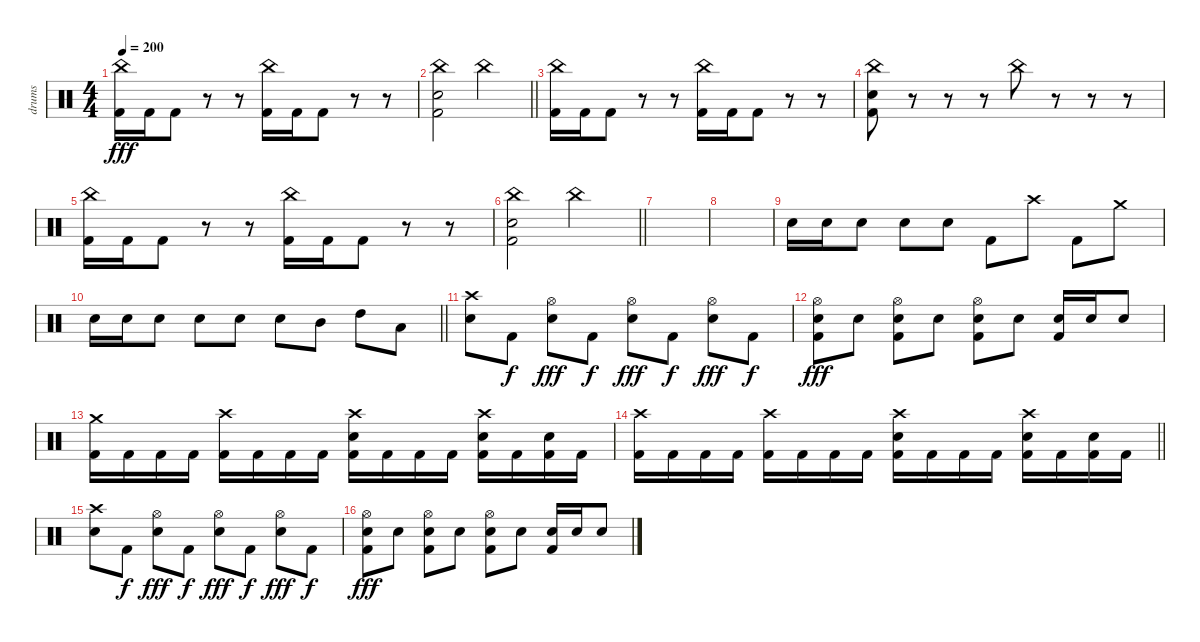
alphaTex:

\track ("drums" "drums") {instrument percussion}
\staff {score}
\articulation defaults
\ts (4 4)
\tempo 200
\clef neutral
\ks c
("China (hit)" "Kick (hit) 2").16{dy fff} "Kick (hit) 2".16 "Kick (hit) 2".8 r.8 r.8 ("China (hit)" "Kick (hit) 2").16 "Kick (hit) 2".16 "Kick (hit) 2".8 r.8 r.8 |
\barLineRight lightlight
("China (hit)" "Electric Snare (hit)" "Kick (hit) 2").2 "China (hit)".2 |
("China (hit)" "Kick (hit) 2").16 "Kick (hit) 2".16 "Kick (hit) 2".8 r.8 r.8 ("China (hit)" "Kick (hit) 2").16 "Kick (hit) 2".16 "Kick (hit) 2".8 r.8 r.8 |
("China (hit)" "Electric Snare (hit)" "Kick (hit) 2").8 r.8 r.8 r.8 "China (hit)".8 r.8 r.8 r.8 |
("China (hit)" "Kick (hit) 2").16 "Kick (hit) 2".16 "Kick (hit) 2".8 r.8 r.8 ("China (hit)" "Kick (hit) 2").16 "Kick (hit) 2".16 "Kick (hit) 2".8 r.8 r.8 |
\barLineRight lightlight
("China (hit)" "Electric Snare (hit)" "Kick (hit) 2").2 "China (hit)".2 |
|
|
"Electric Snare (hit)".16 "Electric Snare (hit)".16 "Electric Snare (hit)".8 "Electric Snare (hit)".8 "Electric Snare (hit)".8 "Kick (hit) 2".8 "Crash high (hit)".8 "Kick (hit) 2".8 "Crash medium (hit)".8 |
\barLineRight lightlight "Electric Snare (hit)".16 "Electric Snare (hit)".16 "Electric Snare (hit)".8 "Electric Snare (hit)".8 "Electric Snare (hit)".8 "Electric Snare (hit)".8 "Mid Tom (hit)".8 "High Tom (hit)".8 "Low Floor Tom (hit)".8
|
("Crash high (hit)" "Electric Snare (hit)").8 "Kick (hit) 2".8{dy f} ("Hi-Hat (open)" "Electric Snare (hit)").8{dy fff} "Kick (hit) 2".8{dy f} ("Hi-Hat (open)" "Electric Snare (hit)").8{dy fff} "Kick (hit) 2".8{dy f} ("Hi-Hat (open)" "Electric Snare (hit)").8{dy fff} "Kick (hit) 2".8{dy f} |
("Hi-Hat (open)" "Electric Snare (hit)" "Kick (hit) 2").8{dy fff} "Electric Snare (hit)".8 ("Hi-Hat (open)" "Electric Snare (hit)" "Kick (hit) 2").8 "Electric Snare (hit)".8 ("Hi-Hat (open)" "Electric Snare (hit)" "Kick (hit) 2").8 "Electric Snare (hit)".8 ("Electric Snare (hit)" "Kick (hit) 2").16 "Electric Snare (hit)".16 "Electric Snare (hit)".8 |
("Crash medium (hit)" "Kick (hit) 2").16 "Kick (hit) 2".16 "Kick (hit) 2".16 "Kick (hit) 2".16 ("Crash high (hit)" "Kick (hit) 2").16 "Kick (hit) 2".16 "Kick (hit) 2".16 "Kick (hit) 2".16 ("Crash high (hit)" "Electric Snare (hit)" "Kick (hit) 2").16 "Kick (hit) 2".16 "Kick (hit) 2".16 "Kick (hit) 2".16 ("Crash high (hit)" "Electric Snare (hit)" "Kick (hit) 2").16 "Kick (hit) 2".16 ("Electric Snare (hit)" "Kick (hit) 2").16 "Kick (hit) 2".16 |
\barLineRight lightlight
("Crash high (hit)" "Kick (hit) 2").16 "Kick (hit) 2".16 "Kick (hit) 2".16 "Kick (hit) 2".16 ("Crash high (hit)" "Kick (hit) 2").16 "Kick (hit) 2".16 "Kick (hit) 2".16 "Kick (hit) 2".16 ("Crash high (hit)" "Electric Snare (hit)" "Kick (hit) 2").16 "Kick (hit) 2".16 "Kick (hit) 2".16 "Kick (hit) 2".16 ("Crash high (hit)" "Electric Snare (hit)" "Kick (hit) 2").16 "Kick (hit) 2".16 ("Electric Snare (hit)" "Kick (hit) 2").16 "Kick (hit) 2".16 |
("Crash high (hit)" "Electric Snare (hit)").8 "Kick (hit) 2".8{dy f} ("Hi-Hat (open)" "Electric Snare (hit)").8{dy fff} "Kick (hit) 2".8{dy f} ("Hi-Hat (open)" "Electric Snare (hit)").8{dy fff} "Kick (hit) 2".8{dy f} ("Hi-Hat (open)" "Electric Snare (hit)").8{dy fff} "Kick (hit) 2".8{dy f} |
("Hi-Hat (open)" "Electric Snare (hit)" "Kick (hit) 2").8{dy fff} "Electric Snare (hit)".8 ("Hi-Hat (open)" "Electric Snare (hit)" "Kick (hit) 2").8 "Electric Snare (hit)".8 ("Hi-Hat (open)" "Electric Snare (hit)" "Kick (hit) 2").8 "Electric Snare (hit)".8 ("Electric Snare (hit)" "Kick (hit) 2").16 "Electric Snare (hit)".16 "Electric Snare (hit)".8
